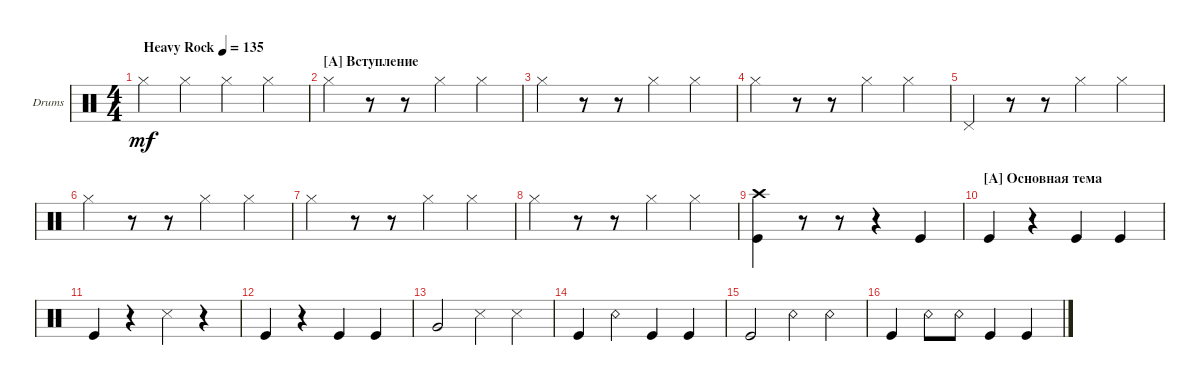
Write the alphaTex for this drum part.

\defaultSystemsLayout 4
\bracketExtendMode groupsimilarinstruments
\firstSystemTrackNameOrientation horizontal
\otherSystemsTrackNameOrientation horizontal
\track ("Drumkit" "Drums") {instrument percussion}
\staff {score}
\articulation defaults
\ts (4 4)
\tempo (135 "Heavy Rock")
\clef neutral
\ks c "Hi-Hat (closed)".4{dy mf} "Hi-Hat (closed)".4 "Hi-Hat (closed)".4 "Hi-Hat (closed)".4
|
\section ("A" "Вступление")
"Hi-Hat (closed)".4 r.8 r.8 "Hi-Hat (closed)".4 "Hi-Hat (closed)".4 |
"Hi-Hat (closed)".4 r.8 r.8 "Hi-Hat (closed)".4 "Hi-Hat (closed)".4 |
"Hi-Hat (closed)".4 r.8 r.8 "Hi-Hat (closed)".4 "Hi-Hat (closed)".4 |
"Pedal Hi-Hat (hit)".4 r.8 r.8 "Hi-Hat (closed)".4 "Hi-Hat (closed)".4 |
"Hi-Hat (closed)".4 r.8 r.8 "Hi-Hat (closed)".4 "Hi-Hat (closed)".4 |
"Hi-Hat (closed)".4 r.8 r.8 "Hi-Hat (closed)".4 "Hi-Hat (closed)".4 |
"Hi-Hat (closed)".4 r.8 r.8 "Hi-Hat (closed)".4 "Hi-Hat (closed)".4 |
("Crash high (hit)" "Kick (hit)").4 r.8 r.8 r.4 "Kick (hit)".4 |
\section ("A" "Основная тема")
"Kick (hit)".4 r.4 "Kick (hit)".4 "Kick (hit)".4 |
"Kick (hit)".4 r.4 "Snare (side stick) 3".4 r.4 |
"Kick (hit)".4 r.4 "Kick (hit)".4 "Kick (hit)".4 |
"Very Low Tom (hit)".2 "Snare (side stick) 3".4 "Snare (side stick) 3".4 |
"Kick (hit)".4 "Snare (rim shot)".4 "Kick (hit)".4 "Kick (hit)".4 |
"Kick (hit)".2 "Snare (rim shot)".4 "Snare (rim shot)".4 |
"Kick (hit)".4 "Snare (rim shot)".8 "Snare (rim shot)".8 "Kick (hit)".4 "Kick (hit)".4
